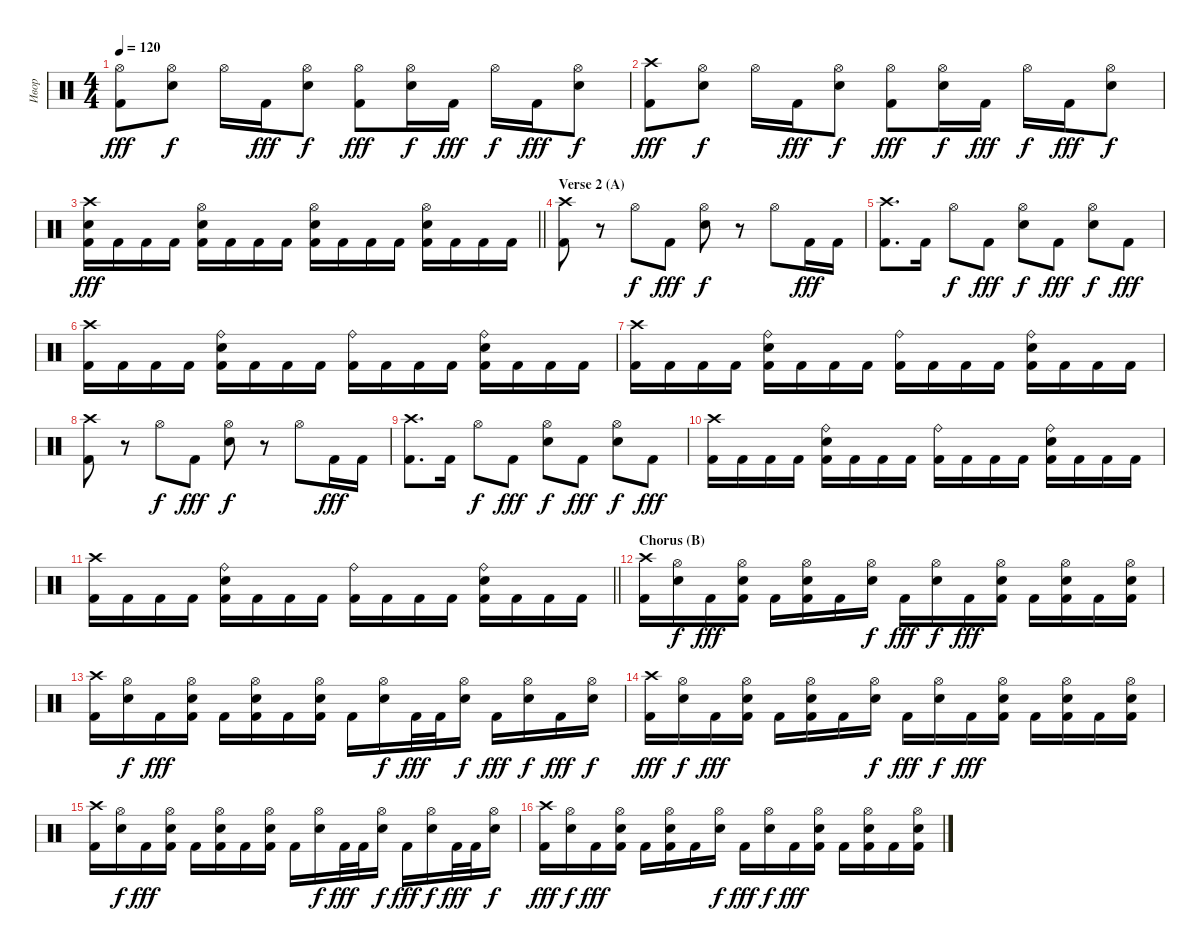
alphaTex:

\track ("Ивор" "Ивор") {instrument percussion}
\staff {score}
\articulation defaults
\ts (4 4)
\tempo 120
\clef neutral
\ks c
("Hi-Hat (open)" "Kick (hit) 2").8{dy fff} ("Hi-Hat (open)" "Electric Snare (hit)").8{dy f} "Hi-Hat (open)".16 "Kick (hit) 2".16{dy fff} ("Hi-Hat (open)" "Electric Snare (hit)").8{dy f} ("Hi-Hat (open)" "Kick (hit) 2").8{dy fff} ("Hi-Hat (open)" "Electric Snare (hit)").16{dy f} "Kick (hit) 2".16{dy fff} "Hi-Hat (open)".16{dy f} "Kick (hit) 2".16{dy fff} ("Hi-Hat (open)" "Electric Snare (hit)").8{dy f} |
("Crash high (hit)" "Kick (hit) 2").8{dy fff} ("Hi-Hat (open)" "Electric Snare (hit)").8{dy f} "Hi-Hat (open)".16 "Kick (hit) 2".16{dy fff} ("Hi-Hat (open)" "Electric Snare (hit)").8{dy f} ("Hi-Hat (open)" "Kick (hit) 2").8{dy fff} ("Hi-Hat (open)" "Electric Snare (hit)").16{dy f} "Kick (hit) 2".16{dy fff} "Hi-Hat (open)".16{dy f} "Kick (hit) 2".16{dy fff} ("Hi-Hat (open)" "Electric Snare (hit)").8{dy f} |
\barLineRight lightlight
("Crash high (hit)" "Electric Snare (hit)" "Kick (hit) 2").16{dy fff} "Kick (hit) 2".16 "Kick (hit) 2".16 "Kick (hit) 2".16 ("Hi-Hat (open)" "Electric Snare (hit)" "Kick (hit) 2").16 "Kick (hit) 2".16 "Kick (hit) 2".16 "Kick (hit) 2".16 ("Hi-Hat (open)" "Electric Snare (hit)" "Kick (hit) 2").16 "Kick (hit) 2".16 "Kick (hit) 2".16 "Kick (hit) 2".16 ("Hi-Hat (open)" "Electric Snare (hit)" "Kick (hit) 2").16 "Kick (hit) 2".16 "Kick (hit) 2".16 "Kick (hit) 2".16 |
\section ("" "Verse 2 (A)")
("Crash high (hit)" "Kick (hit) 2").8 r.8 "Hi-Hat (open)".8{dy f} "Kick (hit) 2".8{dy fff} ("Hi-Hat (open)" "Electric Snare (hit)").8{dy f} r.8 "Hi-Hat (open)".8 "Kick (hit) 2".16{dy fff} "Kick (hit) 2".16 |
("Crash high (hit)" "Kick (hit) 2").8{d} "Kick (hit) 2".16 "Hi-Hat (open)".8{dy f} "Kick (hit) 2".8{dy fff} ("Hi-Hat (open)" "Electric Snare (hit)").8{dy f} "Kick (hit) 2".8{dy fff} ("Hi-Hat (open)" "Electric Snare (hit)").8{dy f} "Kick (hit) 2".8{dy fff} |
("Crash high (hit)" "Kick (hit) 2").16 "Kick (hit) 2".16 "Kick (hit) 2".16 "Kick (hit) 2".16 ("Ride (bell)" "Electric Snare (hit)" "Kick (hit) 2").16 "Kick (hit) 2".16 "Kick (hit) 2".16 "Kick (hit) 2".16 ("Ride (bell)" "Kick (hit) 2").16 "Kick (hit) 2".16 "Kick (hit) 2".16 "Kick (hit) 2".16 ("Ride (bell)" "Electric Snare (hit)" "Kick (hit) 2").16 "Kick (hit) 2".16 "Kick (hit) 2".16 "Kick (hit) 2".16 |
("Crash high (hit)" "Kick (hit) 2").16 "Kick (hit) 2".16 "Kick (hit) 2".16 "Kick (hit) 2".16 ("Ride (bell)" "Electric Snare (hit)" "Kick (hit) 2").16 "Kick (hit) 2".16 "Kick (hit) 2".16 "Kick (hit) 2".16 ("Ride (bell)" "Kick (hit) 2").16 "Kick (hit) 2".16 "Kick (hit) 2".16 "Kick (hit) 2".16 ("Ride (bell)" "Electric Snare (hit)" "Kick (hit) 2").16 "Kick (hit) 2".16 "Kick (hit) 2".16 "Kick (hit) 2".16 |
("Crash high (hit)" "Kick (hit) 2").8 r.8 "Hi-Hat (open)".8{dy f} "Kick (hit) 2".8{dy fff} ("Hi-Hat (open)" "Electric Snare (hit)").8{dy f} r.8 "Hi-Hat (open)".8 "Kick (hit) 2".16{dy fff} "Kick (hit) 2".16 |
("Crash high (hit)" "Kick (hit) 2").8{d} "Kick (hit) 2".16 "Hi-Hat (open)".8{dy f} "Kick (hit) 2".8{dy fff} ("Hi-Hat (open)" "Electric Snare (hit)").8{dy f} "Kick (hit) 2".8{dy fff} ("Hi-Hat (open)" "Electric Snare (hit)").8{dy f} "Kick (hit) 2".8{dy fff} |
("Crash high (hit)" "Kick (hit) 2").16 "Kick (hit) 2".16 "Kick (hit) 2".16 "Kick (hit) 2".16 ("Ride (bell)" "Electric Snare (hit)" "Kick (hit) 2").16 "Kick (hit) 2".16 "Kick (hit) 2".16 "Kick (hit) 2".16 ("Ride (bell)" "Kick (hit) 2").16 "Kick (hit) 2".16 "Kick (hit) 2".16 "Kick (hit) 2".16 ("Ride (bell)" "Electric Snare (hit)" "Kick (hit) 2").16 "Kick (hit) 2".16 "Kick (hit) 2".16 "Kick (hit) 2".16 |
\barLineRight lightlight
("Crash high (hit)" "Kick (hit) 2").16 "Kick (hit) 2".16 "Kick (hit) 2".16 "Kick (hit) 2".16 ("Ride (bell)" "Electric Snare (hit)" "Kick (hit) 2").16 "Kick (hit) 2".16 "Kick (hit) 2".16 "Kick (hit) 2".16 ("Ride (bell)" "Kick (hit) 2").16 "Kick (hit) 2".16 "Kick (hit) 2".16 "Kick (hit) 2".16 ("Ride (bell)" "Electric Snare (hit)" "Kick (hit) 2").16 "Kick (hit) 2".16 "Kick (hit) 2".16 "Kick (hit) 2".16 |
\section ("" "Chorus (B)")
("Crash high (hit)" "Kick (hit) 2").16 ("Hi-Hat (open)" "Electric Snare (hit)").16{dy f} "Kick (hit) 2".16{dy fff} ("Hi-Hat (open)" "Electric Snare (hit)" "Kick (hit) 2").16 "Kick (hit) 2".16 ("Hi-Hat (open)" "Electric Snare (hit)" "Kick (hit) 2").16 "Kick (hit) 2".16 ("Hi-Hat (open)" "Electric Snare (hit)").16{dy f} "Kick (hit) 2".16{dy fff} ("Hi-Hat (open)" "Electric Snare (hit)").16{dy f} "Kick (hit) 2".16{dy fff} ("Hi-Hat (open)" "Electric Snare (hit)" "Kick (hit) 2").16 "Kick (hit) 2".16 ("Hi-Hat (open)" "Electric Snare (hit)" "Kick (hit) 2").16 "Kick (hit) 2".16 ("Hi-Hat (open)" "Electric Snare (hit)" "Kick (hit) 2").16 |
("Crash high (hit)" "Kick (hit) 2").16 ("Hi-Hat (open)" "Electric Snare (hit)").16{dy f} "Kick (hit) 2".16{dy fff} ("Hi-Hat (open)" "Electric Snare (hit)" "Kick (hit) 2").16 "Kick (hit) 2".16 ("Hi-Hat (open)" "Electric Snare (hit)" "Kick (hit) 2").16 "Kick (hit) 2".16 ("Hi-Hat (open)" "Electric Snare (hit)" "Kick (hit) 2").16 "Kick (hit) 2".16 ("Hi-Hat (open)" "Electric Snare (hit)").16{dy f} "Kick (hit) 2".32{dy fff} "Kick (hit) 2".32 ("Hi-Hat (open)" "Electric Snare (hit)").16{dy f} "Kick (hit) 2".16{dy fff} ("Hi-Hat (open)" "Electric Snare (hit)").16{dy f} "Kick (hit) 2".16{dy fff} ("Hi-Hat (open)" "Electric Snare (hit)").16{dy f} |
("Crash high (hit)" "Kick (hit) 2").16{dy fff} ("Hi-Hat (open)" "Electric Snare (hit)").16{dy f} "Kick (hit) 2".16{dy fff} ("Hi-Hat (open)" "Electric Snare (hit)" "Kick (hit) 2").16 "Kick (hit) 2".16 ("Hi-Hat (open)" "Electric Snare (hit)" "Kick (hit) 2").16 "Kick (hit) 2".16 ("Hi-Hat (open)" "Electric Snare (hit)").16{dy f} "Kick (hit) 2".16{dy fff} ("Hi-Hat (open)" "Electric Snare (hit)").16{dy f} "Kick (hit) 2".16{dy fff} ("Hi-Hat (open)" "Electric Snare (hit)" "Kick (hit) 2").16 "Kick (hit) 2".16 ("Hi-Hat (open)" "Electric Snare (hit)" "Kick (hit) 2").16 "Kick (hit) 2".16 ("Hi-Hat (open)" "Electric Snare (hit)" "Kick (hit) 2").16 |
("Crash high (hit)" "Kick (hit) 2").16 ("Hi-Hat (open)" "Electric Snare (hit)").16{dy f} "Kick (hit) 2".16{dy fff} ("Hi-Hat (open)" "Electric Snare (hit)" "Kick (hit) 2").16 "Kick (hit) 2".16 ("Hi-Hat (open)" "Electric Snare (hit)" "Kick (hit) 2").16 "Kick (hit) 2".16 ("Hi-Hat (open)" "Electric Snare (hit)" "Kick (hit) 2").16 "Kick (hit) 2".16 ("Hi-Hat (open)" "Electric Snare (hit)").16{dy f} "Kick (hit) 2".32{dy fff} "Kick (hit) 2".32 ("Hi-Hat (open)" "Electric Snare (hit)").16{dy f} "Kick (hit) 2".16{dy fff} ("Hi-Hat (open)" "Electric Snare (hit)").16{dy f} "Kick (hit) 2".32{dy fff} "Kick (hit) 2".32 ("Hi-Hat (open)" "Electric Snare (hit)").16{dy f} |
("Crash high (hit)" "Kick (hit) 2").16{dy fff} ("Hi-Hat (open)" "Electric Snare (hit)").16{dy f} "Kick (hit) 2".16{dy fff} ("Hi-Hat (open)" "Electric Snare (hit)" "Kick (hit) 2").16 "Kick (hit) 2".16 ("Hi-Hat (open)" "Electric Snare (hit)" "Kick (hit) 2").16 "Kick (hit) 2".16 ("Hi-Hat (open)" "Electric Snare (hit)").16{dy f} "Kick (hit) 2".16{dy fff} ("Hi-Hat (open)" "Electric Snare (hit)").16{dy f} "Kick (hit) 2".16{dy fff} ("Hi-Hat (open)" "Electric Snare (hit)" "Kick (hit) 2").16 "Kick (hit) 2".16 ("Hi-Hat (open)" "Electric Snare (hit)" "Kick (hit) 2").16 "Kick (hit) 2".16 ("Hi-Hat (open)" "Electric Snare (hit)" "Kick (hit) 2").16
